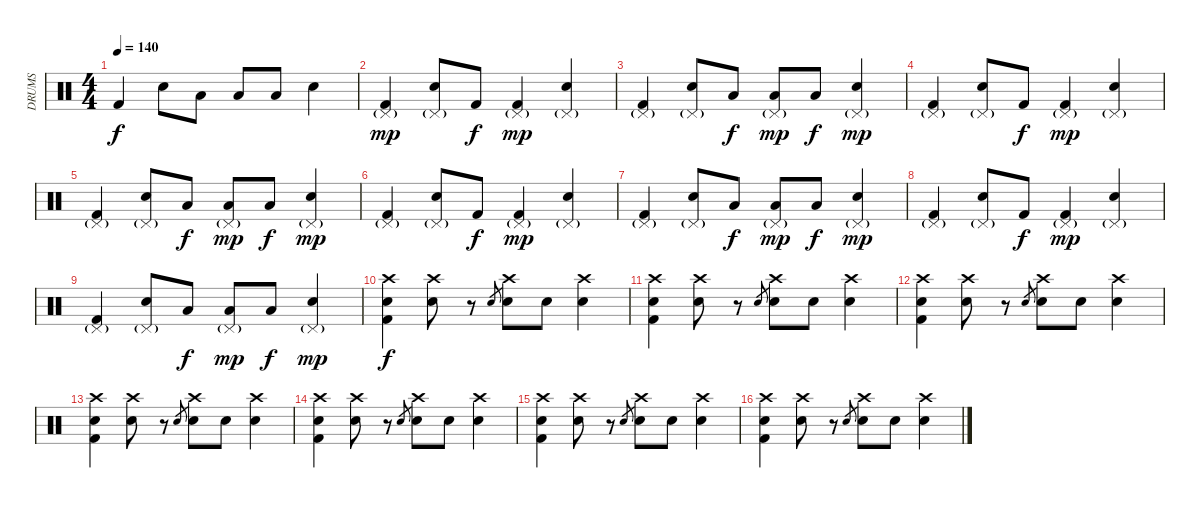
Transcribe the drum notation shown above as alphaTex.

\track ("DRUMS" "DRUMS") {instrument percussion}
\staff {score}
\articulation defaults
\ts (4 4)
\tempo 140
\clef neutral
\ks c "Kick (hit) 2".4{dy f} "Electric Snare (hit)".8 "Low Tom (hit)".8 "Low Tom (hit)".8 "Low Tom (hit)".8 "Electric Snare (hit)".4
|
("Kick (hit) 2" "Pedal Hi-Hat (hit)"{g}).4{dy mp} ("Electric Snare (hit)" "Pedal Hi-Hat (hit)"{g}).8 "Kick (hit) 2".8{dy f} ("Kick (hit) 2" "Pedal Hi-Hat (hit)"{g}).4{dy mp} ("Electric Snare (hit)" "Pedal Hi-Hat (hit)"{g}).4 |
("Kick (hit) 2" "Pedal Hi-Hat (hit)"{g}).4 ("Electric Snare (hit)" "Pedal Hi-Hat (hit)"{g}).8 "Low Tom (hit)".8{dy f} ("Low Tom (hit)" "Pedal Hi-Hat (hit)"{g}).8{dy mp} "Low Tom (hit)".8{dy f} ("Electric Snare (hit)" "Pedal Hi-Hat (hit)"{g}).4{dy mp} |
("Kick (hit) 2" "Pedal Hi-Hat (hit)"{g}).4 ("Electric Snare (hit)" "Pedal Hi-Hat (hit)"{g}).8 "Kick (hit) 2".8{dy f} ("Kick (hit) 2" "Pedal Hi-Hat (hit)"{g}).4{dy mp} ("Electric Snare (hit)" "Pedal Hi-Hat (hit)"{g}).4 |
("Kick (hit) 2" "Pedal Hi-Hat (hit)"{g}).4 ("Electric Snare (hit)" "Pedal Hi-Hat (hit)"{g}).8 "Low Tom (hit)".8{dy f} ("Low Tom (hit)" "Pedal Hi-Hat (hit)"{g}).8{dy mp} "Low Tom (hit)".8{dy f} ("Electric Snare (hit)" "Pedal Hi-Hat (hit)"{g}).4{dy mp} |
("Kick (hit) 2" "Pedal Hi-Hat (hit)"{g}).4 ("Electric Snare (hit)" "Pedal Hi-Hat (hit)"{g}).8 "Kick (hit) 2".8{dy f} ("Kick (hit) 2" "Pedal Hi-Hat (hit)"{g}).4{dy mp} ("Electric Snare (hit)" "Pedal Hi-Hat (hit)"{g}).4 |
("Kick (hit) 2" "Pedal Hi-Hat (hit)"{g}).4 ("Electric Snare (hit)" "Pedal Hi-Hat (hit)"{g}).8 "Low Tom (hit)".8{dy f} ("Low Tom (hit)" "Pedal Hi-Hat (hit)"{g}).8{dy mp} "Low Tom (hit)".8{dy f} ("Electric Snare (hit)" "Pedal Hi-Hat (hit)"{g}).4{dy mp} |
("Kick (hit) 2" "Pedal Hi-Hat (hit)"{g}).4 ("Electric Snare (hit)" "Pedal Hi-Hat (hit)"{g}).8 "Kick (hit) 2".8{dy f} ("Kick (hit) 2" "Pedal Hi-Hat (hit)"{g}).4{dy mp} ("Electric Snare (hit)" "Pedal Hi-Hat (hit)"{g}).4 |
("Kick (hit) 2" "Pedal Hi-Hat (hit)"{g}).4 ("Electric Snare (hit)" "Pedal Hi-Hat (hit)"{g}).8 "Low Tom (hit)".8{dy f} ("Low Tom (hit)" "Pedal Hi-Hat (hit)"{g}).8{dy mp} "Low Tom (hit)".8{dy f} ("Electric Snare (hit)" "Pedal Hi-Hat (hit)"{g}).4{dy mp} |
("Kick (hit) 2" "Electric Snare (hit)" "Crash high (hit)").4{dy f} ("Electric Snare (hit)" "Crash high (hit)").8 r.8 "Electric Snare (hit)".8{gr} ("Electric Snare (hit)" "Crash high (hit)").8 "Electric Snare (hit)".8 ("Electric Snare (hit)" "Crash high (hit)").4 |
("Kick (hit) 2" "Electric Snare (hit)" "Crash high (hit)").4 ("Electric Snare (hit)" "Crash high (hit)").8 r.8 "Electric Snare (hit)".8{gr} ("Electric Snare (hit)" "Crash high (hit)").8 "Electric Snare (hit)".8 ("Electric Snare (hit)" "Crash high (hit)").4 |
("Kick (hit) 2" "Electric Snare (hit)" "Crash high (hit)").4 ("Electric Snare (hit)" "Crash high (hit)").8 r.8 "Electric Snare (hit)".8{gr} ("Electric Snare (hit)" "Crash high (hit)").8 "Electric Snare (hit)".8 ("Electric Snare (hit)" "Crash high (hit)").4 |
("Kick (hit) 2" "Electric Snare (hit)" "Crash high (hit)").4 ("Electric Snare (hit)" "Crash high (hit)").8 r.8 "Electric Snare (hit)".8{gr} ("Electric Snare (hit)" "Crash high (hit)").8 "Electric Snare (hit)".8 ("Electric Snare (hit)" "Crash high (hit)").4 |
("Kick (hit) 2" "Electric Snare (hit)" "Crash high (hit)").4 ("Electric Snare (hit)" "Crash high (hit)").8 r.8 "Electric Snare (hit)".8{gr} ("Electric Snare (hit)" "Crash high (hit)").8 "Electric Snare (hit)".8 ("Electric Snare (hit)" "Crash high (hit)").4 |
("Kick (hit) 2" "Electric Snare (hit)" "Crash high (hit)").4 ("Electric Snare (hit)" "Crash high (hit)").8 r.8 "Electric Snare (hit)".8{gr} ("Electric Snare (hit)" "Crash high (hit)").8 "Electric Snare (hit)".8 ("Electric Snare (hit)" "Crash high (hit)").4 |
("Kick (hit) 2" "Electric Snare (hit)" "Crash high (hit)").4 ("Electric Snare (hit)" "Crash high (hit)").8 r.8 "Electric Snare (hit)".8{gr} ("Electric Snare (hit)" "Crash high (hit)").8 "Electric Snare (hit)".8 ("Electric Snare (hit)" "Crash high (hit)").4
